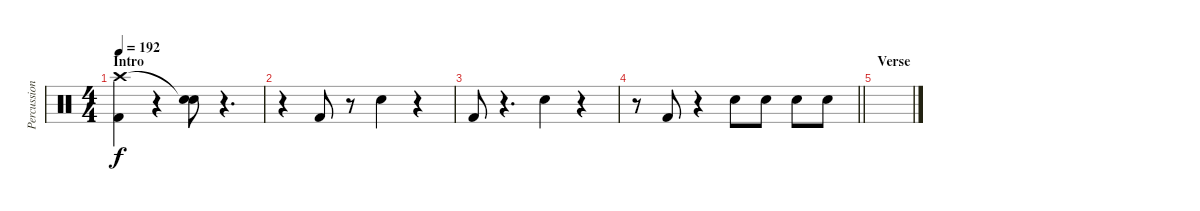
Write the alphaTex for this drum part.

\track ("Percussion" "Percussion") {instrument percussion}
\staff {score}
\articulation defaults
\ts (4 4)
\section ("" "Intro")
\tempo 192
\clef neutral
\ks c
("Crash high (hit)" "Kick (hit) 2").4{dy f} r.4 ("Snare (hit)"{t} "Snare (hit) 2").8 r.4{d} |
r.4 "Kick (hit) 2".8 r.8 "Snare (hit) 2".4 r.4 |
"Kick (hit) 2".8 r.4{d} "Snare (hit) 2".4 r.4 |
\barLineRight lightlight
r.8 "Kick (hit) 2".8 r.4 "Snare (hit) 2".8 "Snare (hit) 2".8 "Snare (hit) 2".8 "Snare (hit) 2".8 |
\section ("" "Verse")
